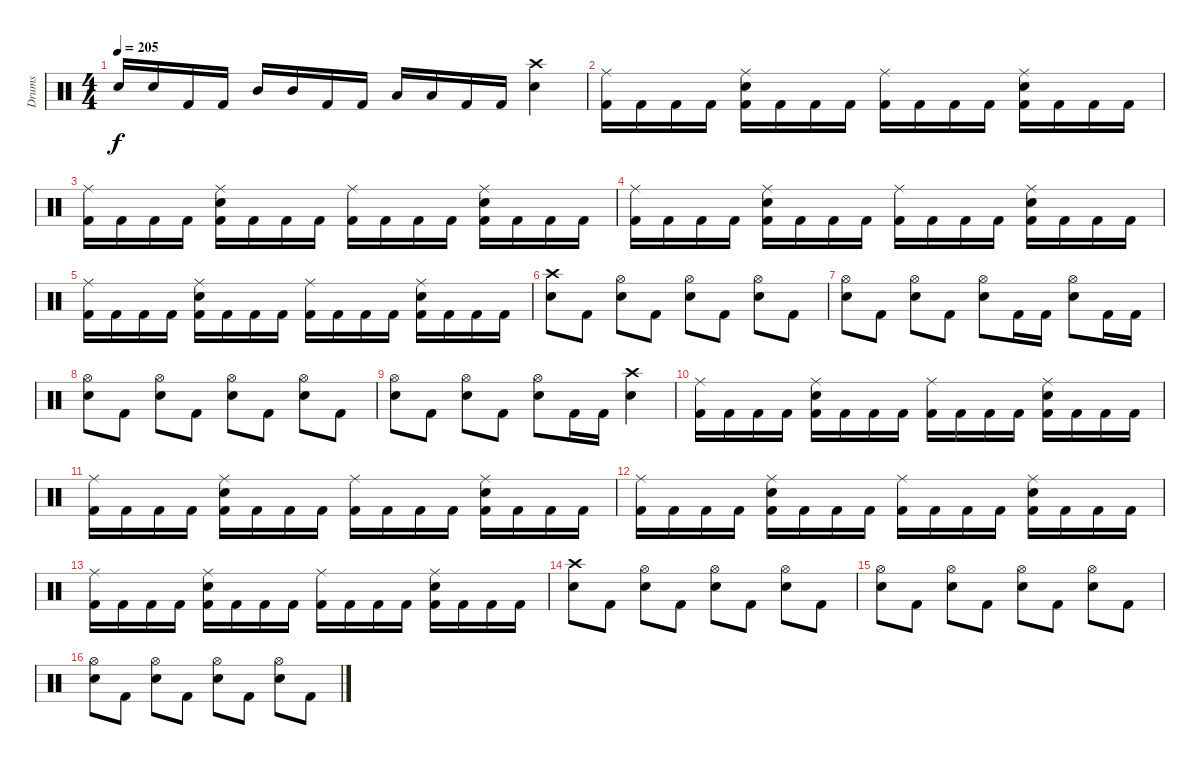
\track ("Drums" "Drums") {instrument percussion}
\staff {score}
\articulation defaults
\ts (4 4)
\tempo 205
\clef neutral
\ks c "Electric Snare (hit)".16{dy f} "Electric Snare (hit)".16 "Kick (hit) 2".16 "Kick (hit) 2".16 "Mid Tom (hit)".16 "Mid Tom (hit)".16 "Kick (hit) 2".16 "Kick (hit) 2".16 "Low Tom (hit)".16 "Low Tom (hit)".16 "Kick (hit) 2".16 "Kick (hit) 2".16
("Crash high (hit)" "Electric Snare (hit)").4 |
("Ride (middle)" "Kick (hit) 2").16 "Kick (hit) 2".16 "Kick (hit) 2".16 "Kick (hit) 2".16 ("Ride (middle)" "Electric Snare (hit)" "Kick (hit) 2").16 "Kick (hit) 2".16 "Kick (hit) 2".16 "Kick (hit) 2".16 ("Ride (middle)" "Kick (hit) 2").16 "Kick (hit) 2".16 "Kick (hit) 2".16 "Kick (hit) 2".16 ("Ride (middle)" "Electric Snare (hit)" "Kick (hit) 2").16 "Kick (hit) 2".16 "Kick (hit) 2".16 "Kick (hit) 2".16 |
("Ride (middle)" "Kick (hit) 2").16 "Kick (hit) 2".16 "Kick (hit) 2".16 "Kick (hit) 2".16 ("Ride (middle)" "Electric Snare (hit)" "Kick (hit) 2").16 "Kick (hit) 2".16 "Kick (hit) 2".16 "Kick (hit) 2".16 ("Ride (middle)" "Kick (hit) 2").16 "Kick (hit) 2".16 "Kick (hit) 2".16 "Kick (hit) 2".16 ("Ride (middle)" "Electric Snare (hit)" "Kick (hit) 2").16 "Kick (hit) 2".16 "Kick (hit) 2".16 "Kick (hit) 2".16 |
("Ride (middle)" "Kick (hit) 2").16 "Kick (hit) 2".16 "Kick (hit) 2".16 "Kick (hit) 2".16 ("Ride (middle)" "Electric Snare (hit)" "Kick (hit) 2").16 "Kick (hit) 2".16 "Kick (hit) 2".16 "Kick (hit) 2".16 ("Ride (middle)" "Kick (hit) 2").16 "Kick (hit) 2".16 "Kick (hit) 2".16 "Kick (hit) 2".16 ("Ride (middle)" "Electric Snare (hit)" "Kick (hit) 2").16 "Kick (hit) 2".16 "Kick (hit) 2".16 "Kick (hit) 2".16 |
("Ride (middle)" "Kick (hit) 2").16 "Kick (hit) 2".16 "Kick (hit) 2".16 "Kick (hit) 2".16 ("Ride (middle)" "Electric Snare (hit)" "Kick (hit) 2").16 "Kick (hit) 2".16 "Kick (hit) 2".16 "Kick (hit) 2".16 ("Ride (middle)" "Kick (hit) 2").16 "Kick (hit) 2".16 "Kick (hit) 2".16 "Kick (hit) 2".16 ("Ride (middle)" "Electric Snare (hit)" "Kick (hit) 2").16 "Kick (hit) 2".16 "Kick (hit) 2".16 "Kick (hit) 2".16 |
("Crash high (hit)" "Electric Snare (hit)").8 "Kick (hit) 2".8 ("Hi-Hat (open)" "Electric Snare (hit)").8 "Kick (hit) 2".8 ("Hi-Hat (open)" "Electric Snare (hit)").8 "Kick (hit) 2".8 ("Hi-Hat (open)" "Electric Snare (hit)").8 "Kick (hit) 2".8 |
("Hi-Hat (open)" "Electric Snare (hit)").8 "Kick (hit) 2".8 ("Hi-Hat (open)" "Electric Snare (hit)").8 "Kick (hit) 2".8 ("Hi-Hat (open)" "Electric Snare (hit)").8 "Kick (hit) 2".16 "Kick (hit) 2".16 ("Hi-Hat (open)" "Electric Snare (hit)").8 "Kick (hit) 2".16 "Kick (hit) 2".16 |
("Hi-Hat (open)" "Electric Snare (hit)").8 "Kick (hit) 2".8 ("Hi-Hat (open)" "Electric Snare (hit)").8 "Kick (hit) 2".8 ("Hi-Hat (open)" "Electric Snare (hit)").8 "Kick (hit) 2".8 ("Hi-Hat (open)" "Electric Snare (hit)").8 "Kick (hit) 2".8 |
("Hi-Hat (open)" "Electric Snare (hit)").8 "Kick (hit) 2".8 ("Hi-Hat (open)" "Electric Snare (hit)").8 "Kick (hit) 2".8 ("Hi-Hat (open)" "Electric Snare (hit)").8 "Kick (hit) 2".16 "Kick (hit) 2".16 ("Crash high (hit)" "Electric Snare (hit)").4 |
("Ride (middle)" "Kick (hit) 2").16 "Kick (hit) 2".16 "Kick (hit) 2".16 "Kick (hit) 2".16 ("Ride (middle)" "Electric Snare (hit)" "Kick (hit) 2").16 "Kick (hit) 2".16 "Kick (hit) 2".16 "Kick (hit) 2".16 ("Ride (middle)" "Kick (hit) 2").16 "Kick (hit) 2".16 "Kick (hit) 2".16 "Kick (hit) 2".16 ("Ride (middle)" "Electric Snare (hit)" "Kick (hit) 2").16 "Kick (hit) 2".16 "Kick (hit) 2".16 "Kick (hit) 2".16 |
("Ride (middle)" "Kick (hit) 2").16 "Kick (hit) 2".16 "Kick (hit) 2".16 "Kick (hit) 2".16 ("Ride (middle)" "Electric Snare (hit)" "Kick (hit) 2").16 "Kick (hit) 2".16 "Kick (hit) 2".16 "Kick (hit) 2".16 ("Ride (middle)" "Kick (hit) 2").16 "Kick (hit) 2".16 "Kick (hit) 2".16 "Kick (hit) 2".16 ("Ride (middle)" "Electric Snare (hit)" "Kick (hit) 2").16 "Kick (hit) 2".16 "Kick (hit) 2".16 "Kick (hit) 2".16 |
("Ride (middle)" "Kick (hit) 2").16 "Kick (hit) 2".16 "Kick (hit) 2".16 "Kick (hit) 2".16 ("Ride (middle)" "Electric Snare (hit)" "Kick (hit) 2").16 "Kick (hit) 2".16 "Kick (hit) 2".16 "Kick (hit) 2".16 ("Ride (middle)" "Kick (hit) 2").16 "Kick (hit) 2".16 "Kick (hit) 2".16 "Kick (hit) 2".16 ("Ride (middle)" "Electric Snare (hit)" "Kick (hit) 2").16 "Kick (hit) 2".16 "Kick (hit) 2".16 "Kick (hit) 2".16 |
("Ride (middle)" "Kick (hit) 2").16 "Kick (hit) 2".16 "Kick (hit) 2".16 "Kick (hit) 2".16 ("Ride (middle)" "Electric Snare (hit)" "Kick (hit) 2").16 "Kick (hit) 2".16 "Kick (hit) 2".16 "Kick (hit) 2".16 ("Ride (middle)" "Kick (hit) 2").16 "Kick (hit) 2".16 "Kick (hit) 2".16 "Kick (hit) 2".16 ("Ride (middle)" "Electric Snare (hit)" "Kick (hit) 2").16 "Kick (hit) 2".16 "Kick (hit) 2".16 "Kick (hit) 2".16 |
("Crash high (hit)" "Electric Snare (hit)").8 "Kick (hit) 2".8 ("Hi-Hat (open)" "Electric Snare (hit)").8 "Kick (hit) 2".8 ("Hi-Hat (open)" "Electric Snare (hit)").8 "Kick (hit) 2".8 ("Hi-Hat (open)" "Electric Snare (hit)").8 "Kick (hit) 2".8 |
("Hi-Hat (open)" "Electric Snare (hit)").8 "Kick (hit) 2".8 ("Hi-Hat (open)" "Electric Snare (hit)").8 "Kick (hit) 2".8 ("Hi-Hat (open)" "Electric Snare (hit)").8 "Kick (hit) 2".8 ("Hi-Hat (open)" "Electric Snare (hit)").8 "Kick (hit) 2".8 |
("Hi-Hat (open)" "Electric Snare (hit)").8 "Kick (hit) 2".8 ("Hi-Hat (open)" "Electric Snare (hit)").8 "Kick (hit) 2".8 ("Hi-Hat (open)" "Electric Snare (hit)").8 "Kick (hit) 2".8 ("Hi-Hat (open)" "Electric Snare (hit)").8 "Kick (hit) 2".8
